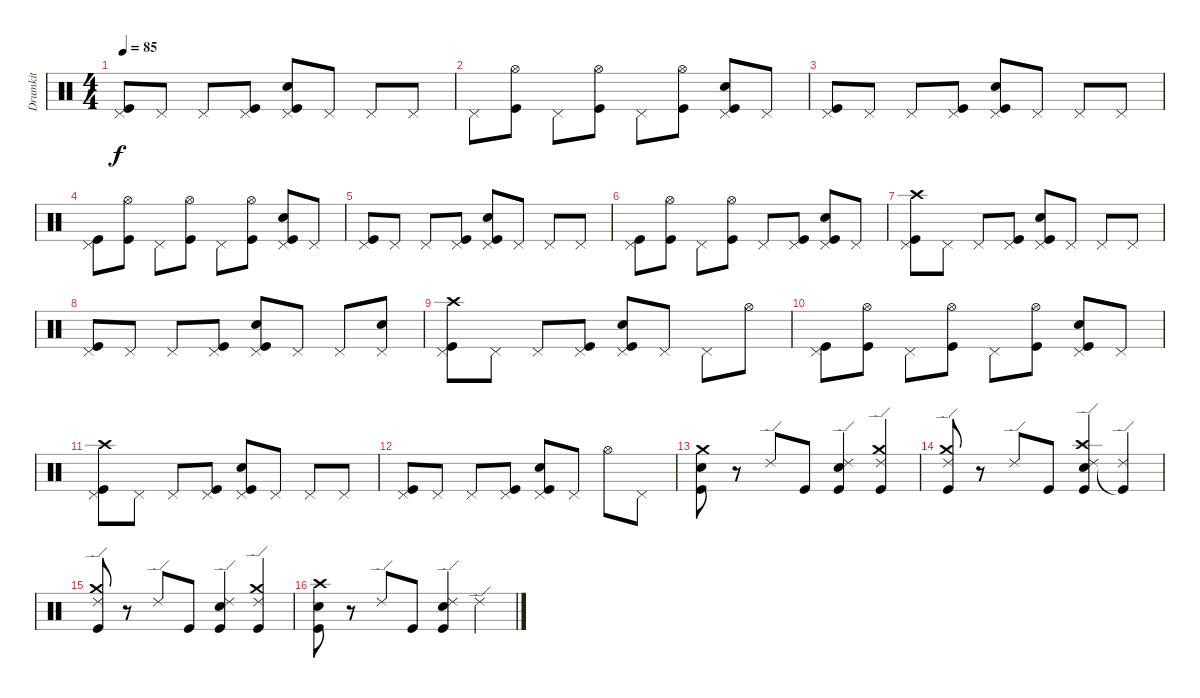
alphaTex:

\track ("Drumkit" "Drumkit") {instrument percussion}
\staff {score}
\articulation defaults
\ts (4 4)
\tempo 85
\clef neutral
\ks c
("Pedal Hi-Hat (hit)" "Kick (hit)").8{dy f} "Pedal Hi-Hat (hit)".8 "Pedal Hi-Hat (hit)".8 ("Pedal Hi-Hat (hit)" "Kick (hit)").8 ("Pedal Hi-Hat (hit)" "Snare (hit) 2" "Kick (hit)").8 "Pedal Hi-Hat (hit)".8 "Pedal Hi-Hat (hit)".8 "Pedal Hi-Hat (hit)".8 |
"Pedal Hi-Hat (hit)".8 ("Hi-Hat (open)" "Kick (hit)").8 "Pedal Hi-Hat (hit)".8 ("Hi-Hat (open)" "Kick (hit)").8 "Pedal Hi-Hat (hit)".8 ("Hi-Hat (open)" "Kick (hit)").8 ("Pedal Hi-Hat (hit)" "Snare (hit) 2" "Kick (hit)").8 "Pedal Hi-Hat (hit)".8 |
("Pedal Hi-Hat (hit)" "Kick (hit)").8 "Pedal Hi-Hat (hit)".8 "Pedal Hi-Hat (hit)".8 ("Pedal Hi-Hat (hit)" "Kick (hit)").8 ("Pedal Hi-Hat (hit)" "Snare (hit) 2" "Kick (hit)").8 "Pedal Hi-Hat (hit)".8 "Pedal Hi-Hat (hit)".8 "Pedal Hi-Hat (hit)".8 |
("Pedal Hi-Hat (hit)" "Kick (hit)").8 ("Hi-Hat (open)" "Kick (hit)").8 "Pedal Hi-Hat (hit)".8 ("Hi-Hat (open)" "Kick (hit)").8 "Pedal Hi-Hat (hit)".8 ("Hi-Hat (open)" "Kick (hit)").8 ("Pedal Hi-Hat (hit)" "Snare (hit) 2" "Kick (hit)").8 "Pedal Hi-Hat (hit)".8 |
("Pedal Hi-Hat (hit)" "Kick (hit)").8 "Pedal Hi-Hat (hit)".8 "Pedal Hi-Hat (hit)".8 ("Pedal Hi-Hat (hit)" "Kick (hit)").8 ("Pedal Hi-Hat (hit)" "Snare (hit) 2" "Kick (hit)").8 "Pedal Hi-Hat (hit)".8 "Pedal Hi-Hat (hit)".8 "Pedal Hi-Hat (hit)".8 |
("Pedal Hi-Hat (hit)" "Kick (hit)").8 ("Hi-Hat (open)" "Kick (hit)").8 "Pedal Hi-Hat (hit)".8 ("Hi-Hat (open)" "Kick (hit)").8 "Pedal Hi-Hat (hit)".8 ("Pedal Hi-Hat (hit)" "Kick (hit)").8 ("Pedal Hi-Hat (hit)" "Snare (hit) 2" "Kick (hit)").8 "Pedal Hi-Hat (hit)".8 |
("Crash high (hit)" "Pedal Hi-Hat (hit)" "Kick (hit)").8 "Pedal Hi-Hat (hit)".8 "Pedal Hi-Hat (hit)".8 ("Pedal Hi-Hat (hit)" "Kick (hit)").8 ("Pedal Hi-Hat (hit)" "Snare (hit) 2" "Kick (hit)").8 "Pedal Hi-Hat (hit)".8 "Pedal Hi-Hat (hit)".8 "Pedal Hi-Hat (hit)".8 |
("Pedal Hi-Hat (hit)" "Kick (hit)").8 "Pedal Hi-Hat (hit)".8 "Pedal Hi-Hat (hit)".8 ("Pedal Hi-Hat (hit)" "Kick (hit)").8 ("Pedal Hi-Hat (hit)" "Snare (hit) 2" "Kick (hit)").8 "Pedal Hi-Hat (hit)".8 "Pedal Hi-Hat (hit)".8 ("Pedal Hi-Hat (hit)" "Snare (hit) 2").8 |
("Crash high (hit)" "Pedal Hi-Hat (hit)" "Kick (hit)").8 "Pedal Hi-Hat (hit)".8 "Pedal Hi-Hat (hit)".8 ("Pedal Hi-Hat (hit)" "Kick (hit)").8 ("Pedal Hi-Hat (hit)" "Snare (hit) 2" "Kick (hit)").8 "Pedal Hi-Hat (hit)".8 "Pedal Hi-Hat (hit)".8 "Hi-Hat (open)".8 |
("Pedal Hi-Hat (hit)" "Kick (hit)").8 ("Hi-Hat (open)" "Kick (hit)").8 "Pedal Hi-Hat (hit)".8 ("Hi-Hat (open)" "Kick (hit)").8 "Pedal Hi-Hat (hit)".8 ("Hi-Hat (open)" "Kick (hit)").8 ("Pedal Hi-Hat (hit)" "Snare (hit) 2" "Kick (hit)").8 "Pedal Hi-Hat (hit)".8 |
("Crash high (hit)" "Pedal Hi-Hat (hit)" "Kick (hit)").8 "Pedal Hi-Hat (hit)".8 "Pedal Hi-Hat (hit)".8 ("Pedal Hi-Hat (hit)" "Kick (hit)").8 ("Pedal Hi-Hat (hit)" "Snare (hit) 2" "Kick (hit)").8 "Pedal Hi-Hat (hit)".8 "Pedal Hi-Hat (hit)".8 "Pedal Hi-Hat (hit)".8 |
("Pedal Hi-Hat (hit)" "Kick (hit)").8 "Pedal Hi-Hat (hit)".8 "Pedal Hi-Hat (hit)".8 ("Pedal Hi-Hat (hit)" "Kick (hit)").8 ("Pedal Hi-Hat (hit)" "Snare (hit) 2" "Kick (hit)").8 "Pedal Hi-Hat (hit)".8 "Hi-Hat (open)".8 "Pedal Hi-Hat (hit)".8 |
("Crash medium (hit)" "Snare (hit) 2" "Kick (hit)").8 r.8 "Ride (edge) 2".8 "Kick (hit)".8 ("Ride (edge) 2" "Snare (hit) 2" "Kick (hit)").4 ("Crash medium (hit)" "Ride (edge) 2" "Kick (hit)").4 |
("Crash medium (hit)" "Ride (edge) 2" "Kick (hit)").8 r.8 "Ride (edge) 2".8 "Kick (hit)".8 ("Crash high (hit)" "Ride (edge) 2" "Snare (hit) 2" "Kick (hit)").4 ("Ride (edge) 2" "Kick (hit)"{t}).4 |
("Crash medium (hit)" "Ride (edge) 2" "Kick (hit)").8 r.8 "Ride (edge) 2".8 "Kick (hit)".8 ("Ride (edge) 2" "Snare (hit) 2" "Kick (hit)").4 ("Crash medium (hit)" "Ride (edge) 2" "Kick (hit)").4 |
("Crash high (hit)" "Snare (hit) 2" "Kick (hit)").8 r.8 "Ride (edge) 2".8 "Kick (hit)".8 ("Ride (edge) 2" "Snare (hit) 2" "Kick (hit)").4 "Ride (edge) 2".4
